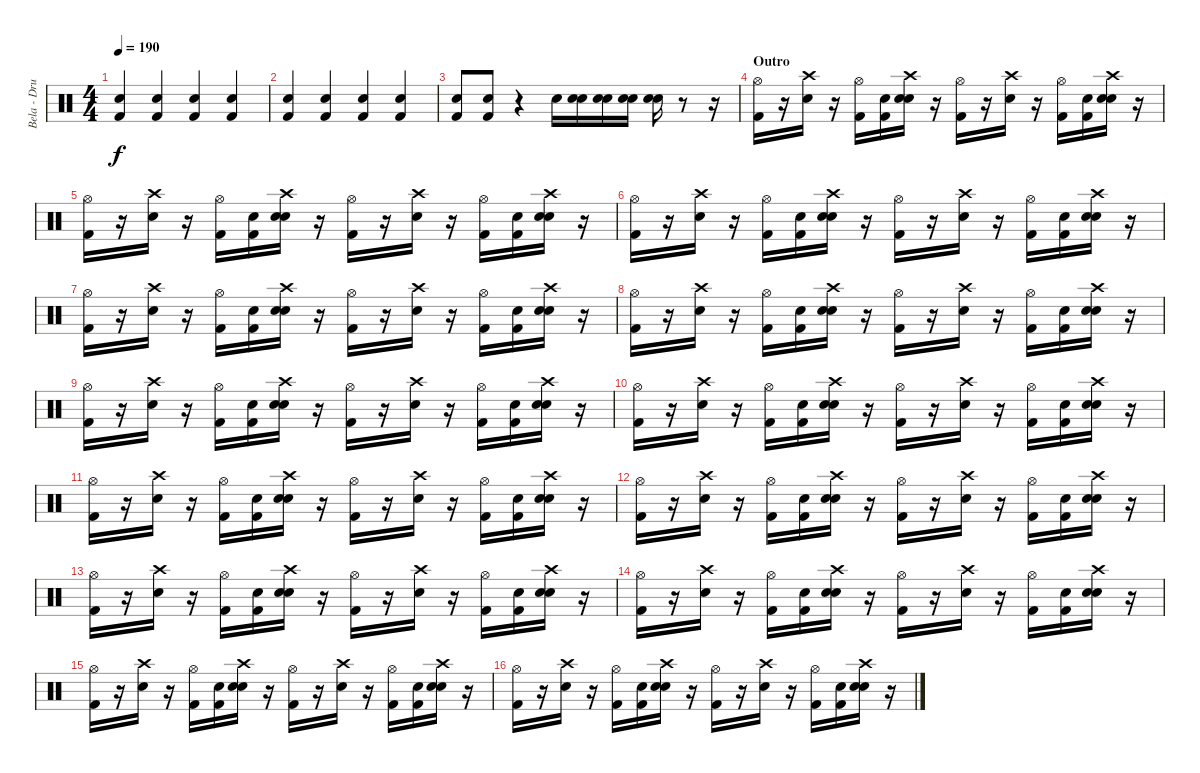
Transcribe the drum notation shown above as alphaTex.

\track ("Bela - Drums" "Bela - Dru") {instrument percussion}
\staff {score}
\articulation defaults
\ts (4 4)
\tempo 190
\clef neutral
\ks c
("Snare (hit)" "Kick (hit) 2").4{dy f} ("Snare (hit)" "Kick (hit) 2").4 ("Snare (hit)" "Kick (hit) 2").4 ("Snare (hit)" "Kick (hit) 2").4 |
("Snare (hit)" "Kick (hit) 2").4 ("Snare (hit)" "Kick (hit) 2").4 ("Snare (hit)" "Kick (hit) 2").4 ("Snare (hit)" "Kick (hit) 2").4 |
("Snare (hit)" "Kick (hit) 2").8 ("Snare (hit)" "Kick (hit) 2").8 r.4 "Electric Snare (hit)".16 ("Snare (hit)" "Electric Snare (hit)").16 ("Snare (hit)" "Electric Snare (hit)").16 ("Snare (hit)" "Electric Snare (hit)").16 ("Snare (hit)" "Electric Snare (hit)").16 r.8 r.16 |
\section ("" "Outro")
("Hi-Hat (open)" "Kick (hit) 2").16 r.16 ("Crash high (hit)" "Electric Snare (hit)").16 r.16 ("Hi-Hat (open)" "Kick (hit) 2").16 ("Snare (hit)" "Kick (hit) 2").16 ("Snare (hit)" "Crash high (hit)" "Electric Snare (hit)").16 r.16 ("Hi-Hat (open)" "Kick (hit) 2").16 r.16 ("Electric Snare (hit)" "Crash high (hit)").16 r.16 ("Hi-Hat (open)" "Kick (hit) 2").16 ("Snare (hit)" "Kick (hit) 2").16 ("Snare (hit)" "Crash high (hit)" "Electric Snare (hit)").16 r.16 |
("Hi-Hat (open)" "Kick (hit) 2").16 r.16 ("Crash high (hit)" "Electric Snare (hit)").16 r.16 ("Hi-Hat (open)" "Kick (hit) 2").16 ("Snare (hit)" "Kick (hit) 2").16 ("Snare (hit)" "Crash high (hit)" "Electric Snare (hit)").16 r.16 ("Hi-Hat (open)" "Kick (hit) 2").16 r.16 ("Electric Snare (hit)" "Crash high (hit)").16 r.16 ("Hi-Hat (open)" "Kick (hit) 2").16 ("Snare (hit)" "Kick (hit) 2").16 ("Snare (hit)" "Crash high (hit)" "Electric Snare (hit)").16 r.16 |
("Hi-Hat (open)" "Kick (hit) 2").16 r.16 ("Crash high (hit)" "Electric Snare (hit)").16 r.16 ("Hi-Hat (open)" "Kick (hit) 2").16 ("Snare (hit)" "Kick (hit) 2").16 ("Snare (hit)" "Crash high (hit)" "Electric Snare (hit)").16 r.16 ("Hi-Hat (open)" "Kick (hit) 2").16 r.16 ("Electric Snare (hit)" "Crash high (hit)").16 r.16 ("Hi-Hat (open)" "Kick (hit) 2").16 ("Snare (hit)" "Kick (hit) 2").16 ("Snare (hit)" "Crash high (hit)" "Electric Snare (hit)").16 r.16 |
("Hi-Hat (open)" "Kick (hit) 2").16 r.16 ("Crash high (hit)" "Electric Snare (hit)").16 r.16 ("Hi-Hat (open)" "Kick (hit) 2").16 ("Snare (hit)" "Kick (hit) 2").16 ("Snare (hit)" "Crash high (hit)" "Electric Snare (hit)").16 r.16 ("Hi-Hat (open)" "Kick (hit) 2").16 r.16 ("Electric Snare (hit)" "Crash high (hit)").16 r.16 ("Hi-Hat (open)" "Kick (hit) 2").16 ("Snare (hit)" "Kick (hit) 2").16 ("Snare (hit)" "Crash high (hit)" "Electric Snare (hit)").16 r.16 |
("Hi-Hat (open)" "Kick (hit) 2").16 r.16 ("Crash high (hit)" "Electric Snare (hit)").16 r.16 ("Hi-Hat (open)" "Kick (hit) 2").16 ("Snare (hit)" "Kick (hit) 2").16 ("Snare (hit)" "Crash high (hit)" "Electric Snare (hit)").16 r.16 ("Hi-Hat (open)" "Kick (hit) 2").16 r.16 ("Electric Snare (hit)" "Crash high (hit)").16 r.16 ("Hi-Hat (open)" "Kick (hit) 2").16 ("Snare (hit)" "Kick (hit) 2").16 ("Snare (hit)" "Crash high (hit)" "Electric Snare (hit)").16 r.16 |
("Hi-Hat (open)" "Kick (hit) 2").16 r.16 ("Crash high (hit)" "Electric Snare (hit)").16 r.16 ("Hi-Hat (open)" "Kick (hit) 2").16 ("Snare (hit)" "Kick (hit) 2").16 ("Snare (hit)" "Crash high (hit)" "Electric Snare (hit)").16 r.16 ("Hi-Hat (open)" "Kick (hit) 2").16 r.16 ("Electric Snare (hit)" "Crash high (hit)").16 r.16 ("Hi-Hat (open)" "Kick (hit) 2").16 ("Snare (hit)" "Kick (hit) 2").16 ("Snare (hit)" "Crash high (hit)" "Electric Snare (hit)").16 r.16 |
("Hi-Hat (open)" "Kick (hit) 2").16 r.16 ("Crash high (hit)" "Electric Snare (hit)").16 r.16 ("Hi-Hat (open)" "Kick (hit) 2").16 ("Snare (hit)" "Kick (hit) 2").16 ("Snare (hit)" "Crash high (hit)" "Electric Snare (hit)").16 r.16 ("Hi-Hat (open)" "Kick (hit) 2").16 r.16 ("Electric Snare (hit)" "Crash high (hit)").16 r.16 ("Hi-Hat (open)" "Kick (hit) 2").16 ("Snare (hit)" "Kick (hit) 2").16 ("Snare (hit)" "Crash high (hit)" "Electric Snare (hit)").16 r.16 |
("Hi-Hat (open)" "Kick (hit) 2").16 r.16 ("Crash high (hit)" "Electric Snare (hit)").16 r.16 ("Hi-Hat (open)" "Kick (hit) 2").16 ("Snare (hit)" "Kick (hit) 2").16 ("Snare (hit)" "Crash high (hit)" "Electric Snare (hit)").16 r.16 ("Hi-Hat (open)" "Kick (hit) 2").16 r.16 ("Electric Snare (hit)" "Crash high (hit)").16 r.16 ("Hi-Hat (open)" "Kick (hit) 2").16 ("Snare (hit)" "Kick (hit) 2").16 ("Snare (hit)" "Crash high (hit)" "Electric Snare (hit)").16 r.16 |
("Hi-Hat (open)" "Kick (hit) 2").16 r.16 ("Crash high (hit)" "Electric Snare (hit)").16 r.16 ("Hi-Hat (open)" "Kick (hit) 2").16 ("Snare (hit)" "Kick (hit) 2").16 ("Snare (hit)" "Crash high (hit)" "Electric Snare (hit)").16 r.16 ("Hi-Hat (open)" "Kick (hit) 2").16 r.16 ("Electric Snare (hit)" "Crash high (hit)").16 r.16 ("Hi-Hat (open)" "Kick (hit) 2").16 ("Snare (hit)" "Kick (hit) 2").16 ("Snare (hit)" "Crash high (hit)" "Electric Snare (hit)").16 r.16 |
("Hi-Hat (open)" "Kick (hit) 2").16 r.16 ("Crash high (hit)" "Electric Snare (hit)").16 r.16 ("Hi-Hat (open)" "Kick (hit) 2").16 ("Snare (hit)" "Kick (hit) 2").16 ("Snare (hit)" "Crash high (hit)" "Electric Snare (hit)").16 r.16 ("Hi-Hat (open)" "Kick (hit) 2").16 r.16 ("Electric Snare (hit)" "Crash high (hit)").16 r.16 ("Hi-Hat (open)" "Kick (hit) 2").16 ("Snare (hit)" "Kick (hit) 2").16 ("Snare (hit)" "Crash high (hit)" "Electric Snare (hit)").16 r.16 |
("Hi-Hat (open)" "Kick (hit) 2").16 r.16 ("Crash high (hit)" "Electric Snare (hit)").16 r.16 ("Hi-Hat (open)" "Kick (hit) 2").16 ("Snare (hit)" "Kick (hit) 2").16 ("Snare (hit)" "Crash high (hit)" "Electric Snare (hit)").16 r.16 ("Hi-Hat (open)" "Kick (hit) 2").16 r.16 ("Electric Snare (hit)" "Crash high (hit)").16 r.16 ("Hi-Hat (open)" "Kick (hit) 2").16 ("Snare (hit)" "Kick (hit) 2").16 ("Snare (hit)" "Crash high (hit)" "Electric Snare (hit)").16 r.16 |
("Hi-Hat (open)" "Kick (hit) 2").16 r.16 ("Crash high (hit)" "Electric Snare (hit)").16 r.16 ("Hi-Hat (open)" "Kick (hit) 2").16 ("Snare (hit)" "Kick (hit) 2").16 ("Snare (hit)" "Crash high (hit)" "Electric Snare (hit)").16 r.16 ("Hi-Hat (open)" "Kick (hit) 2").16 r.16 ("Electric Snare (hit)" "Crash high (hit)").16 r.16 ("Hi-Hat (open)" "Kick (hit) 2").16 ("Snare (hit)" "Kick (hit) 2").16 ("Snare (hit)" "Crash high (hit)" "Electric Snare (hit)").16 r.16 |
("Hi-Hat (open)" "Kick (hit) 2").16 r.16 ("Crash high (hit)" "Electric Snare (hit)").16 r.16 ("Hi-Hat (open)" "Kick (hit) 2").16 ("Snare (hit)" "Kick (hit) 2").16 ("Snare (hit)" "Crash high (hit)" "Electric Snare (hit)").16 r.16 ("Hi-Hat (open)" "Kick (hit) 2").16 r.16 ("Electric Snare (hit)" "Crash high (hit)").16 r.16 ("Hi-Hat (open)" "Kick (hit) 2").16 ("Snare (hit)" "Kick (hit) 2").16 ("Snare (hit)" "Crash high (hit)" "Electric Snare (hit)").16 r.16
